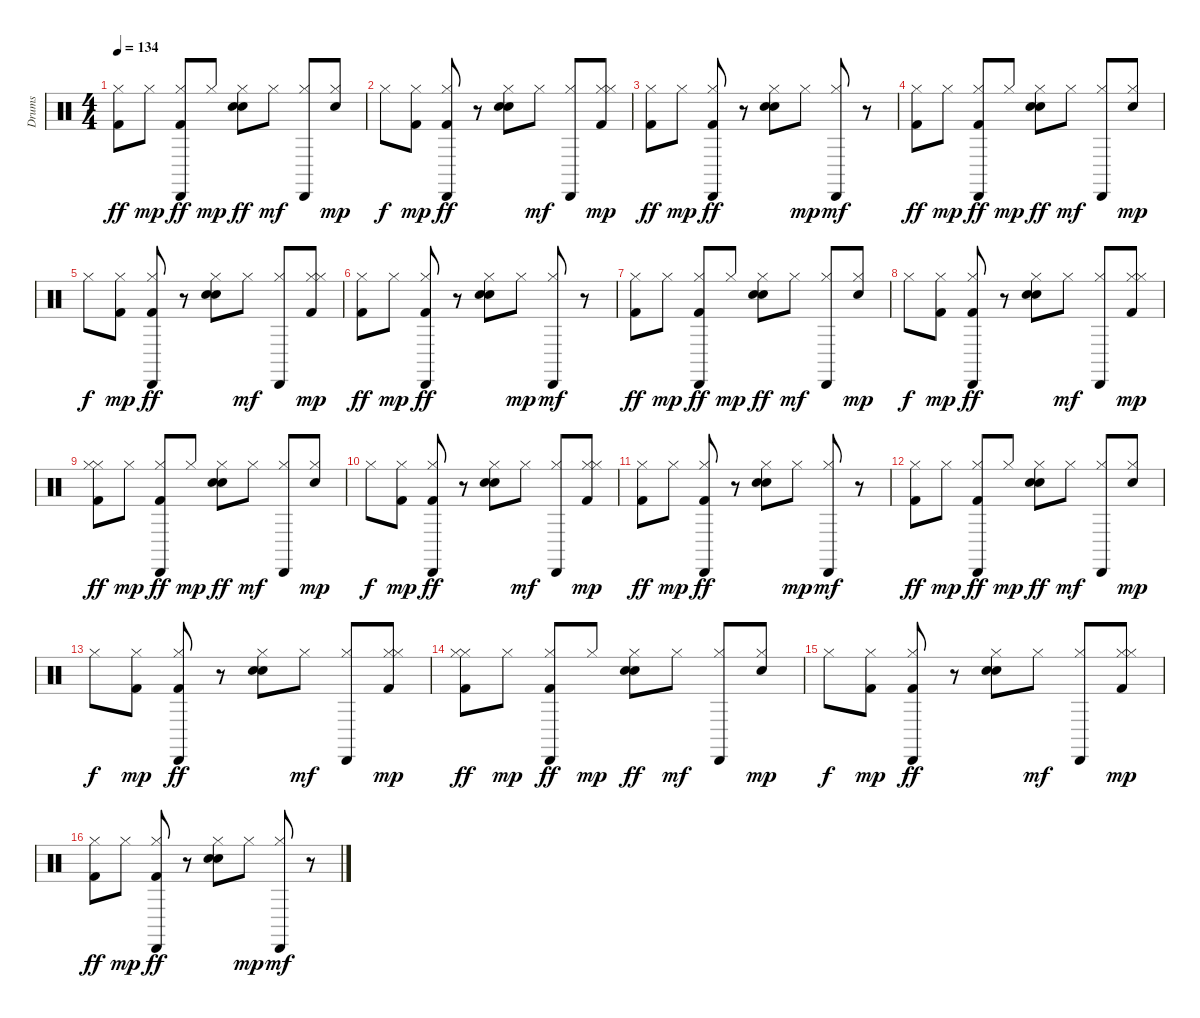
\track ("Drums" "Drums") {instrument percussion}
\staff {score}
\articulation defaults
\ts (4 4)
\tempo 134
\clef neutral
\ks c
("Hi-Hat (closed)" "Kick (hit) 2").8{dy ff} "Hi-Hat (closed)".8{dy mp} ("Cabasa (hit)" "Hi-Hat (closed)" "Kick (hit) 2").8{dy ff} "Hi-Hat (closed)".8{dy mp} ("Snare (hit) 2" "Hand Clap (hit)" "Hi-Hat (closed)").8{dy ff} "Hi-Hat (closed)".8{dy mf} ("Cabasa (hit)" "Hi-Hat (closed)").8 ("Snare (hit) 2" "Hi-Hat (closed)").8{dy mp} |
"Hi-Hat (closed)".8{dy f} ("Kick (hit) 2" "Hi-Hat (closed)").8{dy mp} ("Cabasa (hit)" "Kick (hit) 2" "Hi-Hat (closed)").8{dy ff} r.8 ("Hand Clap (hit)" "Snare (hit) 2" "Hi-Hat (closed)").8 "Hi-Hat (closed)".8{dy mf} ("Hi-Hat (closed)" "Cabasa (hit)").8 ("Kick (hit) 2" "Hi-Hat (closed)" "Hi-Hat (closed)").8{dy mp} |
("Hi-Hat (closed)" "Kick (hit) 2").8{dy ff} "Hi-Hat (closed)".8{dy mp} ("Hi-Hat (closed)" "Cabasa (hit)" "Kick (hit) 2").8{dy ff} r.8 ("Hand Clap (hit)" "Snare (hit) 2" "Hi-Hat (closed)").8 "Hi-Hat (closed)".8{dy mp} ("Cabasa (hit)" "Hi-Hat (closed)").8{dy mf} r.8 |
("Hi-Hat (closed)" "Kick (hit) 2").8{dy ff} "Hi-Hat (closed)".8{dy mp} ("Cabasa (hit)" "Hi-Hat (closed)" "Kick (hit) 2").8{dy ff} "Hi-Hat (closed)".8{dy mp} ("Snare (hit) 2" "Hand Clap (hit)" "Hi-Hat (closed)").8{dy ff} "Hi-Hat (closed)".8{dy mf} ("Cabasa (hit)" "Hi-Hat (closed)").8 ("Snare (hit) 2" "Hi-Hat (closed)").8{dy mp} |
"Hi-Hat (closed)".8{dy f} ("Kick (hit) 2" "Hi-Hat (closed)").8{dy mp} ("Cabasa (hit)" "Kick (hit) 2" "Hi-Hat (closed)").8{dy ff} r.8 ("Hand Clap (hit)" "Snare (hit) 2" "Hi-Hat (closed)").8 "Hi-Hat (closed)".8{dy mf} ("Hi-Hat (closed)" "Cabasa (hit)").8 ("Kick (hit) 2" "Hi-Hat (closed)" "Hi-Hat (closed)").8{dy mp} |
("Hi-Hat (closed)" "Kick (hit) 2").8{dy ff} "Hi-Hat (closed)".8{dy mp} ("Hi-Hat (closed)" "Cabasa (hit)" "Kick (hit) 2").8{dy ff} r.8 ("Hand Clap (hit)" "Snare (hit) 2" "Hi-Hat (closed)").8 "Hi-Hat (closed)".8{dy mp} ("Cabasa (hit)" "Hi-Hat (closed)").8{dy mf} r.8 |
("Hi-Hat (closed)" "Kick (hit) 2").8{dy ff} "Hi-Hat (closed)".8{dy mp} ("Cabasa (hit)" "Hi-Hat (closed)" "Kick (hit) 2").8{dy ff} "Hi-Hat (closed)".8{dy mp} ("Snare (hit) 2" "Hand Clap (hit)" "Hi-Hat (closed)").8{dy ff} "Hi-Hat (closed)".8{dy mf} ("Cabasa (hit)" "Hi-Hat (closed)").8 ("Snare (hit) 2" "Hi-Hat (closed)").8{dy mp} |
"Hi-Hat (closed)".8{dy f} ("Kick (hit) 2" "Hi-Hat (closed)").8{dy mp} ("Cabasa (hit)" "Kick (hit) 2" "Hi-Hat (closed)").8{dy ff} r.8 ("Hand Clap (hit)" "Snare (hit) 2" "Hi-Hat (closed)").8 "Hi-Hat (closed)".8{dy mf} ("Hi-Hat (closed)" "Cabasa (hit)").8 ("Kick (hit) 2" "Hi-Hat (closed)" "Hi-Hat (closed)").8{dy mp} |
("Hi-Hat (closed)" "Hi-Hat (closed)" "Kick (hit) 2").8{dy ff} "Hi-Hat (closed)".8{dy mp} ("Cabasa (hit)" "Hi-Hat (closed)" "Kick (hit) 2").8{dy ff} "Hi-Hat (closed)".8{dy mp} ("Snare (hit) 2" "Hand Clap (hit)" "Hi-Hat (closed)").8{dy ff} "Hi-Hat (closed)".8{dy mf} ("Cabasa (hit)" "Hi-Hat (closed)").8 ("Snare (hit) 2" "Hi-Hat (closed)").8{dy mp} |
"Hi-Hat (closed)".8{dy f} ("Kick (hit) 2" "Hi-Hat (closed)").8{dy mp} ("Cabasa (hit)" "Kick (hit) 2" "Hi-Hat (closed)").8{dy ff} r.8 ("Hand Clap (hit)" "Snare (hit) 2" "Hi-Hat (closed)").8 "Hi-Hat (closed)".8{dy mf} ("Hi-Hat (closed)" "Cabasa (hit)").8 ("Kick (hit) 2" "Hi-Hat (closed)" "Hi-Hat (closed)").8{dy mp} |
("Hi-Hat (closed)" "Kick (hit) 2").8{dy ff} "Hi-Hat (closed)".8{dy mp} ("Hi-Hat (closed)" "Cabasa (hit)" "Kick (hit) 2").8{dy ff} r.8 ("Hand Clap (hit)" "Snare (hit) 2" "Hi-Hat (closed)").8 "Hi-Hat (closed)".8{dy mp} ("Cabasa (hit)" "Hi-Hat (closed)").8{dy mf} r.8 |
("Hi-Hat (closed)" "Kick (hit) 2").8{dy ff} "Hi-Hat (closed)".8{dy mp} ("Cabasa (hit)" "Hi-Hat (closed)" "Kick (hit) 2").8{dy ff} "Hi-Hat (closed)".8{dy mp} ("Snare (hit) 2" "Hand Clap (hit)" "Hi-Hat (closed)").8{dy ff} "Hi-Hat (closed)".8{dy mf} ("Cabasa (hit)" "Hi-Hat (closed)").8 ("Snare (hit) 2" "Hi-Hat (closed)").8{dy mp} |
"Hi-Hat (closed)".8{dy f} ("Kick (hit) 2" "Hi-Hat (closed)").8{dy mp} ("Cabasa (hit)" "Kick (hit) 2" "Hi-Hat (closed)").8{dy ff} r.8 ("Hand Clap (hit)" "Snare (hit) 2" "Hi-Hat (closed)").8 "Hi-Hat (closed)".8{dy mf} ("Hi-Hat (closed)" "Cabasa (hit)").8 ("Kick (hit) 2" "Hi-Hat (closed)" "Hi-Hat (closed)").8{dy mp} |
("Hi-Hat (closed)" "Hi-Hat (closed)" "Kick (hit) 2").8{dy ff} "Hi-Hat (closed)".8{dy mp} ("Cabasa (hit)" "Hi-Hat (closed)" "Kick (hit) 2").8{dy ff} "Hi-Hat (closed)".8{dy mp} ("Snare (hit) 2" "Hand Clap (hit)" "Hi-Hat (closed)").8{dy ff} "Hi-Hat (closed)".8{dy mf} ("Cabasa (hit)" "Hi-Hat (closed)").8 ("Snare (hit) 2" "Hi-Hat (closed)").8{dy mp} |
"Hi-Hat (closed)".8{dy f} ("Kick (hit) 2" "Hi-Hat (closed)").8{dy mp} ("Cabasa (hit)" "Kick (hit) 2" "Hi-Hat (closed)").8{dy ff} r.8 ("Hand Clap (hit)" "Snare (hit) 2" "Hi-Hat (closed)").8 "Hi-Hat (closed)".8{dy mf} ("Hi-Hat (closed)" "Cabasa (hit)").8 ("Kick (hit) 2" "Hi-Hat (closed)" "Hi-Hat (closed)").8{dy mp} |
("Hi-Hat (closed)" "Kick (hit) 2").8{dy ff} "Hi-Hat (closed)".8{dy mp} ("Hi-Hat (closed)" "Cabasa (hit)" "Kick (hit) 2").8{dy ff} r.8 ("Hand Clap (hit)" "Snare (hit) 2" "Hi-Hat (closed)").8 "Hi-Hat (closed)".8{dy mp} ("Cabasa (hit)" "Hi-Hat (closed)").8{dy mf} r.8
